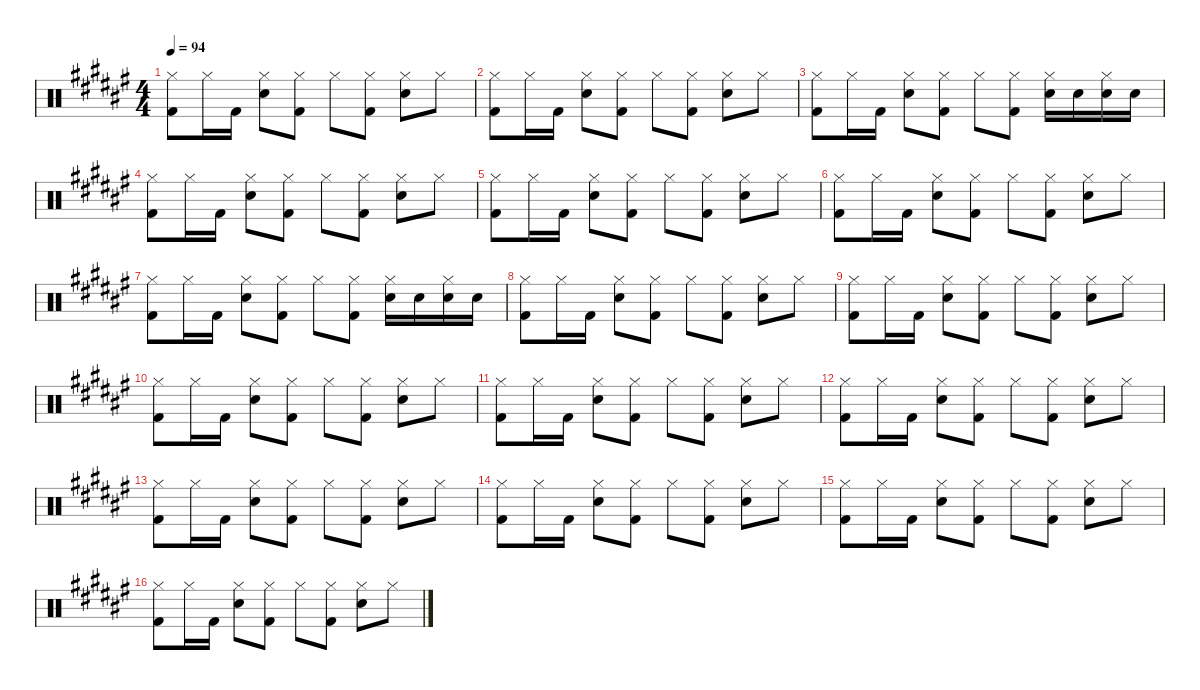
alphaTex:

\defaultSystemsLayout 4
\hideDynamics
\bracketExtendMode nobrackets
\singleTrackTrackNamePolicy hidden
\multiTrackTrackNamePolicy hidden
\otherSystemsTrackNameOrientation horizontal
\track ("Mike Joyce" "drm.") {instrument percussion}
\staff {score}
\articulation defaults
\ts (4 4)
\tempo 94
\clef neutral
\ks f#
("Hi-Hat (closed)"{acc forcenatural} "Kick (hit) 2"{acc forcenatural}).8{dy f beam Down} "Hi-Hat (closed)"{acc forcenatural}.16{beam Down} "Kick (hit) 2"{acc forcenatural}.16{beam Down} ("Hi-Hat (closed)"{acc forcenatural} "Snare (hit) 2"{acc forcenatural}).8{beam Down} ("Hi-Hat (closed)"{acc forcenatural} "Kick (hit) 2"{acc forcenatural}).8{beam Down} "Hi-Hat (closed)"{acc forcenatural}.8{beam Down} ("Hi-Hat (closed)"{acc forcenatural} "Kick (hit) 2"{acc forcenatural}).8{beam Down} ("Hi-Hat (closed)"{acc forcenatural} "Snare (hit) 2"{acc forcenatural}).8{beam Down} "Hi-Hat (closed)"{acc forcenatural}.8{beam Down} |
("Hi-Hat (closed)"{acc forcenatural} "Kick (hit) 2"{acc forcenatural}).8{beam Down} "Hi-Hat (closed)"{acc forcenatural}.16{beam Down} "Kick (hit) 2"{acc forcenatural}.16{beam Down} ("Hi-Hat (closed)"{acc forcenatural} "Snare (hit) 2"{acc forcenatural}).8{beam Down} ("Hi-Hat (closed)"{acc forcenatural} "Kick (hit) 2"{acc forcenatural}).8{beam Down} "Hi-Hat (closed)"{acc forcenatural}.8{beam Down} ("Hi-Hat (closed)"{acc forcenatural} "Kick (hit) 2"{acc forcenatural}).8{beam Down} ("Hi-Hat (closed)"{acc forcenatural} "Snare (hit) 2"{acc forcenatural}).8{beam Down} "Hi-Hat (closed)"{acc forcenatural}.8{beam Down} |
("Hi-Hat (closed)"{acc forcenatural} "Kick (hit) 2"{acc forcenatural}).8{beam Down} "Hi-Hat (closed)"{acc forcenatural}.16{beam Down} "Kick (hit) 2"{acc forcenatural}.16{beam Down} ("Hi-Hat (closed)"{acc forcenatural} "Snare (hit) 2"{acc forcenatural}).8{beam Down} ("Hi-Hat (closed)"{acc forcenatural} "Kick (hit) 2"{acc forcenatural}).8{beam Down} "Hi-Hat (closed)"{acc forcenatural}.8{beam Down} ("Hi-Hat (closed)"{acc forcenatural} "Kick (hit) 2"{acc forcenatural}).8{beam Down} ("Hi-Hat (closed)"{acc forcenatural} "Snare (hit) 2"{acc forcenatural}).16{beam Down} "Snare (hit) 2"{acc forcenatural}.16{beam Down} ("Hi-Hat (closed)"{acc forcenatural} "Snare (hit) 2"{acc forcenatural}).16{beam Down} "Snare (hit) 2"{acc forcenatural}.16{beam Down} |
("Hi-Hat (closed)"{acc forcenatural} "Kick (hit) 2"{acc forcenatural}).8{beam Down} "Hi-Hat (closed)"{acc forcenatural}.16{beam Down} "Kick (hit) 2"{acc forcenatural}.16{beam Down} ("Hi-Hat (closed)"{acc forcenatural} "Snare (hit) 2"{acc forcenatural}).8{beam Down} ("Hi-Hat (closed)"{acc forcenatural} "Kick (hit) 2"{acc forcenatural}).8{beam Down} "Hi-Hat (closed)"{acc forcenatural}.8{beam Down} ("Hi-Hat (closed)"{acc forcenatural} "Kick (hit) 2"{acc forcenatural}).8{beam Down} ("Hi-Hat (closed)"{acc forcenatural} "Snare (hit) 2"{acc forcenatural}).8{beam Down} "Hi-Hat (closed)"{acc forcenatural}.8{beam Down} |
("Hi-Hat (closed)"{acc forcenatural} "Kick (hit) 2"{acc forcenatural}).8{beam Down} "Hi-Hat (closed)"{acc forcenatural}.16{beam Down} "Kick (hit) 2"{acc forcenatural}.16{beam Down} ("Hi-Hat (closed)"{acc forcenatural} "Snare (hit) 2"{acc forcenatural}).8{beam Down} ("Hi-Hat (closed)"{acc forcenatural} "Kick (hit) 2"{acc forcenatural}).8{beam Down} "Hi-Hat (closed)"{acc forcenatural}.8{beam Down} ("Hi-Hat (closed)"{acc forcenatural} "Kick (hit) 2"{acc forcenatural}).8{beam Down} ("Hi-Hat (closed)"{acc forcenatural} "Snare (hit) 2"{acc forcenatural}).8{beam Down} "Hi-Hat (closed)"{acc forcenatural}.8{beam Down} |
("Hi-Hat (closed)"{acc forcenatural} "Kick (hit) 2"{acc forcenatural}).8{beam Down} "Hi-Hat (closed)"{acc forcenatural}.16{beam Down} "Kick (hit) 2"{acc forcenatural}.16{beam Down} ("Hi-Hat (closed)"{acc forcenatural} "Snare (hit) 2"{acc forcenatural}).8{beam Down} ("Hi-Hat (closed)"{acc forcenatural} "Kick (hit) 2"{acc forcenatural}).8{beam Down} "Hi-Hat (closed)"{acc forcenatural}.8{beam Down} ("Hi-Hat (closed)"{acc forcenatural} "Kick (hit) 2"{acc forcenatural}).8{beam Down} ("Hi-Hat (closed)"{acc forcenatural} "Snare (hit) 2"{acc forcenatural}).8{beam Down} "Hi-Hat (closed)"{acc forcenatural}.8{beam Down} |
("Hi-Hat (closed)"{acc forcenatural} "Kick (hit) 2"{acc forcenatural}).8{beam Down} "Hi-Hat (closed)"{acc forcenatural}.16{beam Down} "Kick (hit) 2"{acc forcenatural}.16{beam Down} ("Hi-Hat (closed)"{acc forcenatural} "Snare (hit) 2"{acc forcenatural}).8{beam Down} ("Hi-Hat (closed)"{acc forcenatural} "Kick (hit) 2"{acc forcenatural}).8{beam Down} "Hi-Hat (closed)"{acc forcenatural}.8{beam Down} ("Hi-Hat (closed)"{acc forcenatural} "Kick (hit) 2"{acc forcenatural}).8{beam Down} ("Hi-Hat (closed)"{acc forcenatural} "Snare (hit) 2"{acc forcenatural}).16{beam Down} "Snare (hit) 2"{acc forcenatural}.16{beam Down} ("Hi-Hat (closed)"{acc forcenatural} "Snare (hit) 2"{acc forcenatural}).16{beam Down} "Snare (hit) 2"{acc forcenatural}.16{beam Down} |
("Hi-Hat (closed)"{acc forcenatural} "Kick (hit) 2"{acc forcenatural}).8{beam Down} "Hi-Hat (closed)"{acc forcenatural}.16{beam Down} "Kick (hit) 2"{acc forcenatural}.16{beam Down} ("Hi-Hat (closed)"{acc forcenatural} "Snare (hit) 2"{acc forcenatural}).8{beam Down} ("Hi-Hat (closed)"{acc forcenatural} "Kick (hit) 2"{acc forcenatural}).8{beam Down} "Hi-Hat (closed)"{acc forcenatural}.8{beam Down} ("Hi-Hat (closed)"{acc forcenatural} "Kick (hit) 2"{acc forcenatural}).8{beam Down} ("Hi-Hat (closed)"{acc forcenatural} "Snare (hit) 2"{acc forcenatural}).8{beam Down} "Hi-Hat (closed)"{acc forcenatural}.8{beam Down} |
("Hi-Hat (closed)"{acc forcenatural} "Kick (hit) 2"{acc forcenatural}).8{beam Down} "Hi-Hat (closed)"{acc forcenatural}.16{beam Down} "Kick (hit) 2"{acc forcenatural}.16{beam Down} ("Hi-Hat (closed)"{acc forcenatural} "Snare (hit) 2"{acc forcenatural}).8{beam Down} ("Hi-Hat (closed)"{acc forcenatural} "Kick (hit) 2"{acc forcenatural}).8{beam Down} "Hi-Hat (closed)"{acc forcenatural}.8{beam Down} ("Hi-Hat (closed)"{acc forcenatural} "Kick (hit) 2"{acc forcenatural}).8{beam Down} ("Hi-Hat (closed)"{acc forcenatural} "Snare (hit) 2"{acc forcenatural}).8{beam Down} "Hi-Hat (closed)"{acc forcenatural}.8{beam Down} |
("Hi-Hat (closed)"{acc forcenatural} "Kick (hit) 2"{acc forcenatural}).8{beam Down} "Hi-Hat (closed)"{acc forcenatural}.16{beam Down} "Kick (hit) 2"{acc forcenatural}.16{beam Down} ("Hi-Hat (closed)"{acc forcenatural} "Snare (hit) 2"{acc forcenatural}).8{beam Down} ("Hi-Hat (closed)"{acc forcenatural} "Kick (hit) 2"{acc forcenatural}).8{beam Down} "Hi-Hat (closed)"{acc forcenatural}.8{beam Down} ("Hi-Hat (closed)"{acc forcenatural} "Kick (hit) 2"{acc forcenatural}).8{beam Down} ("Hi-Hat (closed)"{acc forcenatural} "Snare (hit) 2"{acc forcenatural}).8{beam Down} "Hi-Hat (closed)"{acc forcenatural}.8{beam Down} |
("Hi-Hat (closed)"{acc forcenatural} "Kick (hit) 2"{acc forcenatural}).8{beam Down} "Hi-Hat (closed)"{acc forcenatural}.16{beam Down} "Kick (hit) 2"{acc forcenatural}.16{beam Down} ("Hi-Hat (closed)"{acc forcenatural} "Snare (hit) 2"{acc forcenatural}).8{beam Down} ("Hi-Hat (closed)"{acc forcenatural} "Kick (hit) 2"{acc forcenatural}).8{beam Down} "Hi-Hat (closed)"{acc forcenatural}.8{beam Down} ("Hi-Hat (closed)"{acc forcenatural} "Kick (hit) 2"{acc forcenatural}).8{beam Down} ("Hi-Hat (closed)"{acc forcenatural} "Snare (hit) 2"{acc forcenatural}).8{beam Down} "Hi-Hat (closed)"{acc forcenatural}.8{beam Down} |
("Hi-Hat (closed)"{acc forcenatural} "Kick (hit) 2"{acc forcenatural}).8{beam Down} "Hi-Hat (closed)"{acc forcenatural}.16{beam Down} "Kick (hit) 2"{acc forcenatural}.16{beam Down} ("Hi-Hat (closed)"{acc forcenatural} "Snare (hit) 2"{acc forcenatural}).8{beam Down} ("Hi-Hat (closed)"{acc forcenatural} "Kick (hit) 2"{acc forcenatural}).8{beam Down} "Hi-Hat (closed)"{acc forcenatural}.8{beam Down} ("Hi-Hat (closed)"{acc forcenatural} "Kick (hit) 2"{acc forcenatural}).8{beam Down} ("Hi-Hat (closed)"{acc forcenatural} "Snare (hit) 2"{acc forcenatural}).8{beam Down} "Hi-Hat (closed)"{acc forcenatural}.8{beam Down} |
("Hi-Hat (closed)"{acc forcenatural} "Kick (hit) 2"{acc forcenatural}).8{beam Down} "Hi-Hat (closed)"{acc forcenatural}.16{beam Down} "Kick (hit) 2"{acc forcenatural}.16{beam Down} ("Hi-Hat (closed)"{acc forcenatural} "Snare (hit) 2"{acc forcenatural}).8{beam Down} ("Hi-Hat (closed)"{acc forcenatural} "Kick (hit) 2"{acc forcenatural}).8{beam Down} "Hi-Hat (closed)"{acc forcenatural}.8{beam Down} ("Hi-Hat (closed)"{acc forcenatural} "Kick (hit) 2"{acc forcenatural}).8{beam Down} ("Hi-Hat (closed)"{acc forcenatural} "Snare (hit) 2"{acc forcenatural}).8{beam Down} "Hi-Hat (closed)"{acc forcenatural}.8{beam Down} |
("Hi-Hat (closed)"{acc forcenatural} "Kick (hit) 2"{acc forcenatural}).8{beam Down} "Hi-Hat (closed)"{acc forcenatural}.16{beam Down} "Kick (hit) 2"{acc forcenatural}.16{beam Down} ("Hi-Hat (closed)"{acc forcenatural} "Snare (hit) 2"{acc forcenatural}).8{beam Down} ("Hi-Hat (closed)"{acc forcenatural} "Kick (hit) 2"{acc forcenatural}).8{beam Down} "Hi-Hat (closed)"{acc forcenatural}.8{beam Down} ("Hi-Hat (closed)"{acc forcenatural} "Kick (hit) 2"{acc forcenatural}).8{beam Down} ("Hi-Hat (closed)"{acc forcenatural} "Snare (hit) 2"{acc forcenatural}).8{beam Down} "Hi-Hat (closed)"{acc forcenatural}.8{beam Down} |
("Hi-Hat (closed)"{acc forcenatural} "Kick (hit) 2"{acc forcenatural}).8{beam Down} "Hi-Hat (closed)"{acc forcenatural}.16{beam Down} "Kick (hit) 2"{acc forcenatural}.16{beam Down} ("Hi-Hat (closed)"{acc forcenatural} "Snare (hit) 2"{acc forcenatural}).8{beam Down} ("Hi-Hat (closed)"{acc forcenatural} "Kick (hit) 2"{acc forcenatural}).8{beam Down} "Hi-Hat (closed)"{acc forcenatural}.8{beam Down} ("Hi-Hat (closed)"{acc forcenatural} "Kick (hit) 2"{acc forcenatural}).8{beam Down} ("Hi-Hat (closed)"{acc forcenatural} "Snare (hit) 2"{acc forcenatural}).8{beam Down} "Hi-Hat (closed)"{acc forcenatural}.8{beam Down} |
("Hi-Hat (closed)"{acc forcenatural} "Kick (hit) 2"{acc forcenatural}).8{beam Down} "Hi-Hat (closed)"{acc forcenatural}.16{beam Down} "Kick (hit) 2"{acc forcenatural}.16{beam Down} ("Hi-Hat (closed)"{acc forcenatural} "Snare (hit) 2"{acc forcenatural}).8{beam Down} ("Hi-Hat (closed)"{acc forcenatural} "Kick (hit) 2"{acc forcenatural}).8{beam Down} "Hi-Hat (closed)"{acc forcenatural}.8{beam Down} ("Hi-Hat (closed)"{acc forcenatural} "Kick (hit) 2"{acc forcenatural}).8{beam Down} ("Hi-Hat (closed)"{acc forcenatural} "Snare (hit) 2"{acc forcenatural}).8{beam Down} "Hi-Hat (closed)"{acc forcenatural}.8{beam Down}
